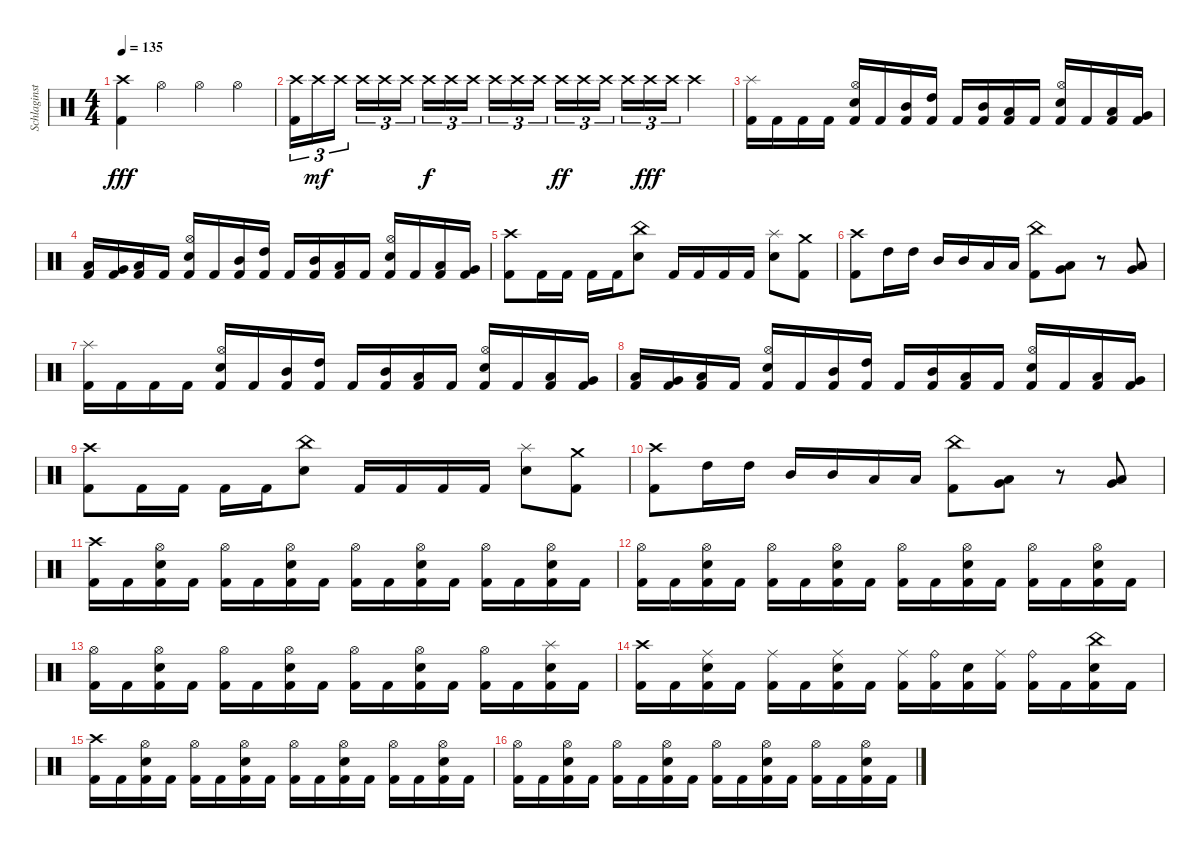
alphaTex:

\track ("Schlaginstrumente - Auswahl" "Schlaginst") {instrument percussion}
\staff {score}
\articulation defaults
\ts (4 4)
\tempo 135
\clef neutral
\ks c
("Crash high (hit)" "Kick (hit) 2").4{dy fff} "Hi-Hat (open)".4 "Hi-Hat (open)".4 "Hi-Hat (open)".4 |
("Crash high (hit)" "Kick (hit) 2").16{tu (3 2)} "Crash high (hit)".16{tu (3 2) dy mf} "Crash high (hit)".16{tu (3 2) beam splitsecondary} "Crash high (hit)".16{tu (3 2)} "Crash high (hit)".16{tu (3 2)} "Crash high (hit)".16{tu (3 2)} "Crash high (hit)".16{tu (3 2) dy f} "Crash high (hit)".16{tu (3 2)} "Crash high (hit)".16{tu (3 2) beam splitsecondary} "Crash high (hit)".16{tu (3 2)} "Crash high (hit)".16{tu (3 2)} "Crash high (hit)".16{tu (3 2)} "Crash high (hit)".16{tu (3 2) dy ff} "Crash high (hit)".16{tu (3 2)} "Crash high (hit)".16{tu (3 2) beam splitsecondary} "Crash high (hit)".16{tu (3 2)} "Crash high (hit)".16{tu (3 2) dy fff} "Crash high (hit)".16{tu (3 2)} "Crash high (hit)".4 |
("Splash (hit)" "Kick (hit) 2").16 "Kick (hit) 2".16 "Kick (hit) 2".16 "Kick (hit) 2".16 ("Hi-Hat (open)" "Snare (hit) 2" "Kick (hit) 2").16 "Kick (hit) 2".16 ("Mid Tom (hit)" "Kick (hit) 2").16 ("High Tom (hit)" "Kick (hit) 2").16 "Kick (hit) 2".16 ("Mid Tom (hit)" "Kick (hit) 2").16 ("Low Tom (hit)" "Kick (hit) 2").16 "Kick (hit) 2".16 ("Hi-Hat (open)" "Snare (hit) 2" "Kick (hit) 2").16 "Kick (hit) 2".16 ("Low Floor Tom (hit)" "Kick (hit) 2").16 ("Very Low Tom (hit)" "Kick (hit) 2").16 |
("Low Floor Tom (hit)" "Kick (hit) 2").16 ("Very Low Tom (hit)" "Kick (hit) 2").16 ("Low Floor Tom (hit)" "Kick (hit) 2").16 "Kick (hit) 2".16 ("Hi-Hat (open)" "Snare (hit) 2" "Kick (hit) 2").16 "Kick (hit) 2".16 ("Mid Tom (hit)" "Kick (hit) 2").16 ("High Tom (hit)" "Kick (hit) 2").16 "Kick (hit) 2".16 ("Mid Tom (hit)" "Kick (hit) 2").16 ("Low Tom (hit)" "Kick (hit) 2").16 "Kick (hit) 2".16 ("Hi-Hat (open)" "Snare (hit) 2" "Kick (hit) 2").16 "Kick (hit) 2".16 ("Low Floor Tom (hit)" "Kick (hit) 2").16 ("Very Low Tom (hit)" "Kick (hit) 2").16 |
("Crash high (hit)" "Kick (hit) 2").8 "Kick (hit) 2".16 "Kick (hit) 2".16 "Kick (hit) 2".16 "Kick (hit) 2".16 ("China (hit)" "Snare (hit) 2").8 "Kick (hit) 2".16 "Kick (hit) 2".16 "Kick (hit) 2".16 "Kick (hit) 2".16 ("Splash (hit)" "Snare (hit) 2").8 ("Crash medium (hit)" "Kick (hit) 2").8 |
("Crash high (hit)" "Kick (hit) 2").8 "High Tom (hit)".16 "High Tom (hit)".16 "Mid Tom (hit)".16 "Mid Tom (hit)".16 "Low Tom (hit)".16 "Low Tom (hit)".16 ("China (hit)" "Kick (hit) 2").8 ("Very Low Tom (hit)" "Low Floor Tom (hit)").8 r.8 ("Very Low Tom (hit)" "Low Floor Tom (hit)").8 |
("Splash (hit)" "Kick (hit) 2").16 "Kick (hit) 2".16 "Kick (hit) 2".16 "Kick (hit) 2".16 ("Hi-Hat (open)" "Snare (hit) 2" "Kick (hit) 2").16 "Kick (hit) 2".16 ("Mid Tom (hit)" "Kick (hit) 2").16 ("High Tom (hit)" "Kick (hit) 2").16 "Kick (hit) 2".16 ("Mid Tom (hit)" "Kick (hit) 2").16 ("Low Tom (hit)" "Kick (hit) 2").16 "Kick (hit) 2".16 ("Hi-Hat (open)" "Snare (hit) 2" "Kick (hit) 2").16 "Kick (hit) 2".16 ("Low Floor Tom (hit)" "Kick (hit) 2").16 ("Very Low Tom (hit)" "Kick (hit) 2").16 |
("Low Floor Tom (hit)" "Kick (hit) 2").16 ("Very Low Tom (hit)" "Kick (hit) 2").16 ("Low Floor Tom (hit)" "Kick (hit) 2").16 "Kick (hit) 2".16 ("Hi-Hat (open)" "Snare (hit) 2" "Kick (hit) 2").16 "Kick (hit) 2".16 ("Mid Tom (hit)" "Kick (hit) 2").16 ("High Tom (hit)" "Kick (hit) 2").16 "Kick (hit) 2".16 ("Mid Tom (hit)" "Kick (hit) 2").16 ("Low Tom (hit)" "Kick (hit) 2").16 "Kick (hit) 2".16 ("Hi-Hat (open)" "Snare (hit) 2" "Kick (hit) 2").16 "Kick (hit) 2".16 ("Low Floor Tom (hit)" "Kick (hit) 2").16 ("Very Low Tom (hit)" "Kick (hit) 2").16 |
("Crash high (hit)" "Kick (hit) 2").8 "Kick (hit) 2".16 "Kick (hit) 2".16 "Kick (hit) 2".16 "Kick (hit) 2".16 ("China (hit)" "Snare (hit) 2").8 "Kick (hit) 2".16 "Kick (hit) 2".16 "Kick (hit) 2".16 "Kick (hit) 2".16 ("Splash (hit)" "Snare (hit) 2").8 ("Crash medium (hit)" "Kick (hit) 2").8 |
("Crash high (hit)" "Kick (hit) 2").8 "High Tom (hit)".16 "High Tom (hit)".16 "Mid Tom (hit)".16 "Mid Tom (hit)".16 "Low Tom (hit)".16 "Low Tom (hit)".16 ("China (hit)" "Kick (hit) 2").8 ("Very Low Tom (hit)" "Low Floor Tom (hit)").8 r.8 ("Very Low Tom (hit)" "Low Floor Tom (hit)").8 |
("Crash high (hit)" "Kick (hit) 2").16 "Kick (hit) 2".16 ("Hi-Hat (open)" "Snare (hit) 2" "Kick (hit) 2").16 "Kick (hit) 2".16 ("Hi-Hat (open)" "Kick (hit) 2").16 "Kick (hit) 2".16 ("Hi-Hat (open)" "Snare (hit) 2" "Kick (hit) 2").16 "Kick (hit) 2".16 ("Hi-Hat (open)" "Kick (hit) 2").16 "Kick (hit) 2".16 ("Hi-Hat (open)" "Snare (hit) 2" "Kick (hit) 2").16 "Kick (hit) 2".16 ("Hi-Hat (open)" "Kick (hit) 2").16 "Kick (hit) 2".16 ("Hi-Hat (open)" "Snare (hit) 2" "Kick (hit) 2").16 "Kick (hit) 2".16 |
("Hi-Hat (open)" "Kick (hit) 2").16 "Kick (hit) 2".16 ("Hi-Hat (open)" "Snare (hit) 2" "Kick (hit) 2").16 "Kick (hit) 2".16 ("Hi-Hat (open)" "Kick (hit) 2").16 "Kick (hit) 2".16 ("Hi-Hat (open)" "Snare (hit) 2" "Kick (hit) 2").16 "Kick (hit) 2".16 ("Hi-Hat (open)" "Kick (hit) 2").16 "Kick (hit) 2".16 ("Hi-Hat (open)" "Snare (hit) 2" "Kick (hit) 2").16 "Kick (hit) 2".16 ("Hi-Hat (open)" "Kick (hit) 2").16 "Kick (hit) 2".16 ("Hi-Hat (open)" "Snare (hit) 2" "Kick (hit) 2").16 "Kick (hit) 2".16 |
("Hi-Hat (open)" "Kick (hit) 2").16 "Kick (hit) 2".16 ("Hi-Hat (open)" "Snare (hit) 2" "Kick (hit) 2").16 "Kick (hit) 2".16 ("Hi-Hat (open)" "Kick (hit) 2").16 "Kick (hit) 2".16 ("Hi-Hat (open)" "Snare (hit) 2" "Kick (hit) 2").16 "Kick (hit) 2".16 ("Hi-Hat (open)" "Kick (hit) 2").16 "Kick (hit) 2".16 ("Hi-Hat (open)" "Snare (hit) 2" "Kick (hit) 2").16 "Kick (hit) 2".16 ("Hi-Hat (open)" "Kick (hit) 2").16 "Kick (hit) 2".16 ("Splash (hit)" "Snare (hit) 2" "Kick (hit) 2").16 "Kick (hit) 2".16 |
("Crash high (hit)" "Kick (hit) 2").16 "Kick (hit) 2".16 ("Ride (middle)" "Snare (hit) 2" "Kick (hit) 2").16 "Kick (hit) 2".16 ("Ride (middle)" "Kick (hit) 2").16 "Kick (hit) 2".16 ("Ride (middle)" "Snare (hit) 2" "Kick (hit) 2").16 "Kick (hit) 2".16 ("Ride (middle)" "Kick (hit) 2").16 ("Ride (bell)" "Kick (hit) 2").16 ("Snare (hit) 2" "Kick (hit) 2").16 ("Ride (middle)" "Kick (hit) 2").16 ("Ride (bell)" "Kick (hit) 2").16 "Kick (hit) 2".16 ("China (hit)" "Snare (hit) 2" "Kick (hit) 2").16 "Kick (hit) 2".16 |
("Crash high (hit)" "Kick (hit) 2").16 "Kick (hit) 2".16 ("Hi-Hat (open)" "Snare (hit) 2" "Kick (hit) 2").16 "Kick (hit) 2".16 ("Hi-Hat (open)" "Kick (hit) 2").16 "Kick (hit) 2".16 ("Hi-Hat (open)" "Snare (hit) 2" "Kick (hit) 2").16 "Kick (hit) 2".16 ("Hi-Hat (open)" "Kick (hit) 2").16 "Kick (hit) 2".16 ("Hi-Hat (open)" "Snare (hit) 2" "Kick (hit) 2").16 "Kick (hit) 2".16 ("Hi-Hat (open)" "Kick (hit) 2").16 "Kick (hit) 2".16 ("Hi-Hat (open)" "Snare (hit) 2" "Kick (hit) 2").16 "Kick (hit) 2".16 |
("Hi-Hat (open)" "Kick (hit) 2").16 "Kick (hit) 2".16 ("Hi-Hat (open)" "Snare (hit) 2" "Kick (hit) 2").16 "Kick (hit) 2".16 ("Hi-Hat (open)" "Kick (hit) 2").16 "Kick (hit) 2".16 ("Hi-Hat (open)" "Snare (hit) 2" "Kick (hit) 2").16 "Kick (hit) 2".16 ("Hi-Hat (open)" "Kick (hit) 2").16 "Kick (hit) 2".16 ("Hi-Hat (open)" "Snare (hit) 2" "Kick (hit) 2").16 "Kick (hit) 2".16 ("Hi-Hat (open)" "Kick (hit) 2").16 "Kick (hit) 2".16 ("Hi-Hat (open)" "Snare (hit) 2" "Kick (hit) 2").16 "Kick (hit) 2".16
